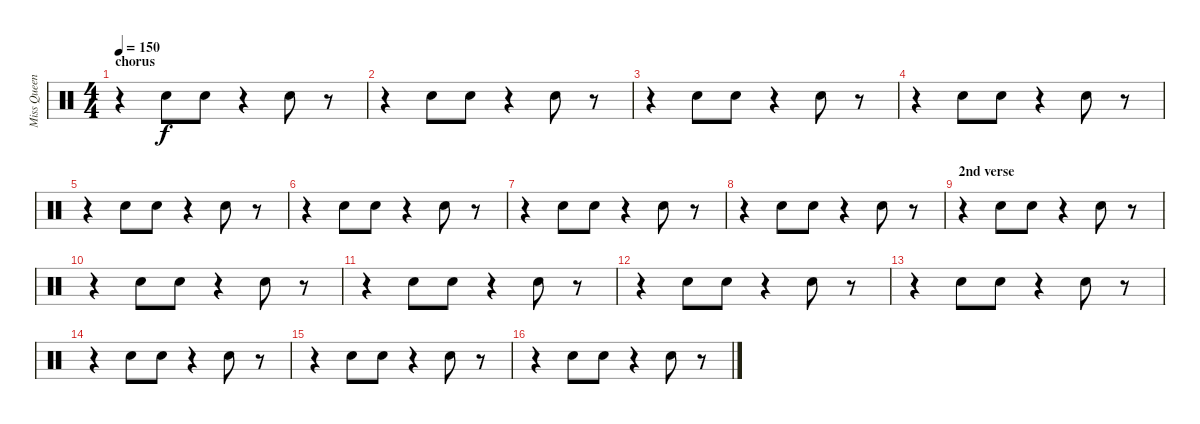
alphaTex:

\track ("Miss Queen B(rodie)" "Miss Queen") {instrument percussion}
\staff {score}
\articulation defaults
\ts (4 4)
\section ("" "chorus")
\tempo 150
\clef neutral
\ks c
r.4{dy f} "Hand Clap (hit)".8 "Hand Clap (hit)".8 r.4 "Hand Clap (hit)".8 r.8 |
r.4 "Hand Clap (hit)".8 "Hand Clap (hit)".8 r.4 "Hand Clap (hit)".8 r.8 |
r.4 "Hand Clap (hit)".8 "Hand Clap (hit)".8 r.4 "Hand Clap (hit)".8 r.8 |
r.4 "Hand Clap (hit)".8 "Hand Clap (hit)".8 r.4 "Hand Clap (hit)".8 r.8 |
\section ("" "")
r.4 "Hand Clap (hit)".8 "Hand Clap (hit)".8 r.4 "Hand Clap (hit)".8 r.8 |
r.4 "Hand Clap (hit)".8 "Hand Clap (hit)".8 r.4 "Hand Clap (hit)".8 r.8 |
r.4 "Hand Clap (hit)".8 "Hand Clap (hit)".8 r.4 "Hand Clap (hit)".8 r.8 |
r.4 "Hand Clap (hit)".8 "Hand Clap (hit)".8 r.4 "Hand Clap (hit)".8 r.8 |
\section ("" "2nd verse")
r.4 "Hand Clap (hit)".8 "Hand Clap (hit)".8 r.4 "Hand Clap (hit)".8 r.8 |
r.4 "Hand Clap (hit)".8 "Hand Clap (hit)".8 r.4 "Hand Clap (hit)".8 r.8 |
r.4 "Hand Clap (hit)".8 "Hand Clap (hit)".8 r.4 "Hand Clap (hit)".8 r.8 |
r.4 "Hand Clap (hit)".8 "Hand Clap (hit)".8 r.4 "Hand Clap (hit)".8 r.8 |
\section ("" "")
r.4 "Hand Clap (hit)".8 "Hand Clap (hit)".8 r.4 "Hand Clap (hit)".8 r.8 |
r.4 "Hand Clap (hit)".8 "Hand Clap (hit)".8 r.4 "Hand Clap (hit)".8 r.8 |
r.4 "Hand Clap (hit)".8 "Hand Clap (hit)".8 r.4 "Hand Clap (hit)".8 r.8 |
r.4 "Hand Clap (hit)".8 "Hand Clap (hit)".8 r.4 "Hand Clap (hit)".8 r.8
